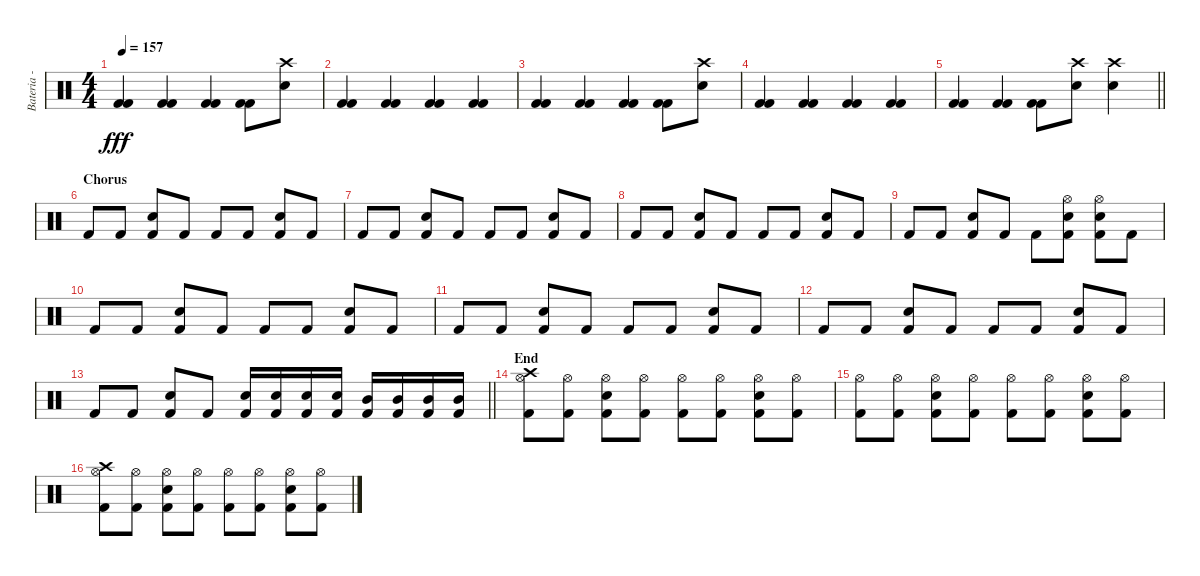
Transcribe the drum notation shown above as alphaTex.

\track ("Bateria - Larzon" "Bateria - ") {instrument percussion}
\staff {score}
\articulation defaults
\ts (4 4)
\tempo 157
\clef neutral
\ks c
("Kick (hit) 2" "Kick (hit) 2").4{dy fff} ("Kick (hit) 2" "Kick (hit) 2").4 ("Kick (hit) 2" "Kick (hit) 2").4 ("Kick (hit) 2" "Kick (hit) 2").8 ("Crash high (hit)" "Snare (hit) 2").8 |
("Kick (hit) 2" "Kick (hit) 2").4 ("Kick (hit) 2" "Kick (hit) 2").4 ("Kick (hit) 2" "Kick (hit) 2").4 ("Kick (hit) 2" "Kick (hit) 2").4 |
("Kick (hit) 2" "Kick (hit) 2").4 ("Kick (hit) 2" "Kick (hit) 2").4 ("Kick (hit) 2" "Kick (hit) 2").4 ("Kick (hit) 2" "Kick (hit) 2").8 ("Crash high (hit)" "Snare (hit) 2").8 |
("Kick (hit) 2" "Kick (hit) 2").4 ("Kick (hit) 2" "Kick (hit) 2").4 ("Kick (hit) 2" "Kick (hit) 2").4 ("Kick (hit) 2" "Kick (hit) 2").4 |
\barLineRight lightlight
("Kick (hit) 2" "Kick (hit) 2").4 ("Kick (hit) 2" "Kick (hit) 2").4 ("Kick (hit) 2" "Kick (hit) 2").8 ("Crash high (hit)" "Snare (hit) 2").8 ("Crash high (hit)" "Snare (hit) 2").4 |
\section ("" "Chorus")
"Kick (hit) 2".8 "Kick (hit) 2".8 ("Kick (hit) 2" "Snare (hit) 2").8 "Kick (hit) 2".8 "Kick (hit) 2".8 "Kick (hit) 2".8 ("Kick (hit) 2" "Snare (hit) 2").8 "Kick (hit) 2".8 |
"Kick (hit) 2".8 "Kick (hit) 2".8 ("Kick (hit) 2" "Snare (hit) 2").8 "Kick (hit) 2".8 "Kick (hit) 2".8 "Kick (hit) 2".8 ("Kick (hit) 2" "Snare (hit) 2").8 "Kick (hit) 2".8 |
"Kick (hit) 2".8 "Kick (hit) 2".8 ("Kick (hit) 2" "Snare (hit) 2").8 "Kick (hit) 2".8 "Kick (hit) 2".8 "Kick (hit) 2".8 ("Kick (hit) 2" "Snare (hit) 2").8 "Kick (hit) 2".8 |
"Kick (hit) 2".8 "Kick (hit) 2".8 ("Kick (hit) 2" "Snare (hit) 2").8 "Kick (hit) 2".8 "Kick (hit) 2".8 ("Kick (hit) 2" "Hi-Hat (open)" "Snare (hit) 2").8 ("Kick (hit) 2" "Hi-Hat (open)" "Snare (hit) 2").8 "Kick (hit) 2".8 |
"Kick (hit) 2".8 "Kick (hit) 2".8 ("Kick (hit) 2" "Snare (hit) 2").8 "Kick (hit) 2".8 "Kick (hit) 2".8 "Kick (hit) 2".8 ("Kick (hit) 2" "Snare (hit) 2").8 "Kick (hit) 2".8 |
"Kick (hit) 2".8 "Kick (hit) 2".8 ("Kick (hit) 2" "Snare (hit) 2").8 "Kick (hit) 2".8 "Kick (hit) 2".8 "Kick (hit) 2".8 ("Kick (hit) 2" "Snare (hit) 2").8 "Kick (hit) 2".8 |
"Kick (hit) 2".8 "Kick (hit) 2".8 ("Kick (hit) 2" "Snare (hit) 2").8 "Kick (hit) 2".8 "Kick (hit) 2".8 "Kick (hit) 2".8 ("Kick (hit) 2" "Snare (hit) 2").8 "Kick (hit) 2".8 |
\barLineRight lightlight "Kick (hit) 2".8 "Kick (hit) 2".8
("Kick (hit) 2" "Snare (hit) 2").8 "Kick (hit) 2".8 ("Kick (hit) 2" "Snare (hit) 2").16 ("Kick (hit) 2" "Snare (hit) 2").16 ("Kick (hit) 2" "Snare (hit) 2").16 ("Kick (hit) 2" "Snare (hit) 2").16 ("Kick (hit) 2" "Mid Tom (hit)").16 ("Kick (hit) 2" "Mid Tom (hit)").16 ("Kick (hit) 2" "Mid Tom (hit)").16 ("Kick (hit) 2" "Mid Tom (hit)").16 |
\section ("" "End")
("Kick (hit) 2" "Crash high (hit)" "Hi-Hat (open)").8 ("Kick (hit) 2" "Hi-Hat (open)").8 ("Kick (hit) 2" "Hi-Hat (open)" "Snare (hit) 2").8 ("Kick (hit) 2" "Hi-Hat (open)").8 ("Kick (hit) 2" "Hi-Hat (open)").8 ("Kick (hit) 2" "Hi-Hat (open)").8 ("Kick (hit) 2" "Hi-Hat (open)" "Snare (hit) 2").8 ("Kick (hit) 2" "Hi-Hat (open)").8 |
("Kick (hit) 2" "Hi-Hat (open)").8 ("Kick (hit) 2" "Hi-Hat (open)").8 ("Kick (hit) 2" "Hi-Hat (open)" "Snare (hit) 2").8 ("Kick (hit) 2" "Hi-Hat (open)").8 ("Kick (hit) 2" "Hi-Hat (open)").8 ("Kick (hit) 2" "Hi-Hat (open)").8 ("Kick (hit) 2" "Hi-Hat (open)" "Snare (hit) 2").8 ("Kick (hit) 2" "Hi-Hat (open)").8 |
("Kick (hit) 2" "Crash high (hit)" "Hi-Hat (open)").8 ("Kick (hit) 2" "Hi-Hat (open)").8 ("Kick (hit) 2" "Hi-Hat (open)" "Snare (hit) 2").8 ("Kick (hit) 2" "Hi-Hat (open)").8 ("Kick (hit) 2" "Hi-Hat (open)").8 ("Kick (hit) 2" "Hi-Hat (open)").8 ("Kick (hit) 2" "Hi-Hat (open)" "Snare (hit) 2").8 ("Kick (hit) 2" "Hi-Hat (open)").8
